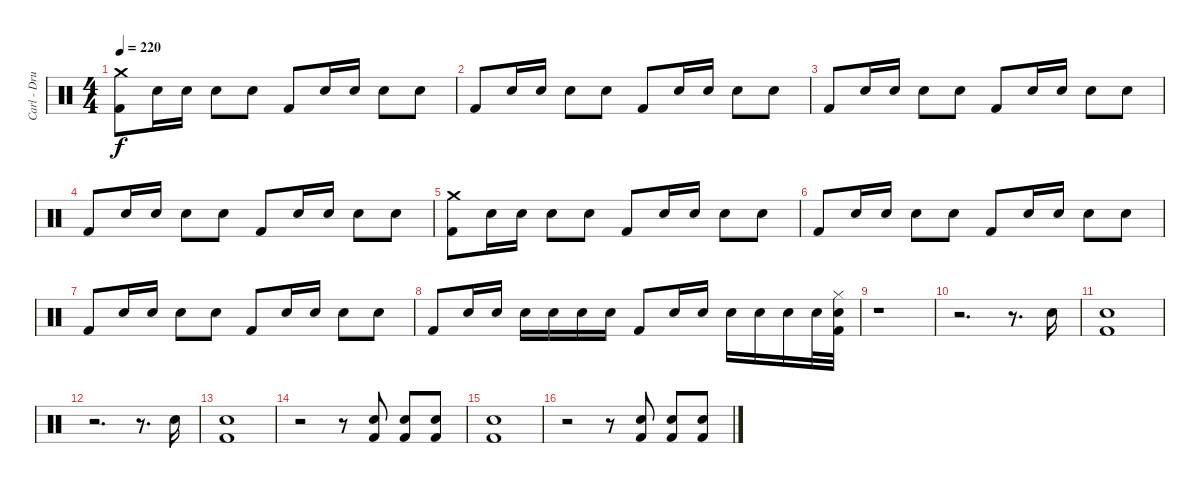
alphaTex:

\track ("Carl - Drums" "Carl - Dru") {instrument percussion}
\staff {score}
\articulation defaults
\ts (4 4)
\tempo 220
\clef neutral
\ks c
("Crash medium (hit)" "Kick (hit) 2").8{dy f} "Electric Snare (hit)".16 "Electric Snare (hit)".16 "Electric Snare (hit)".8 "Electric Snare (hit)".8 "Kick (hit) 2".8 "Electric Snare (hit)".16 "Electric Snare (hit)".16 "Electric Snare (hit)".8 "Electric Snare (hit)".8 |
"Kick (hit) 2".8 "Electric Snare (hit)".16 "Electric Snare (hit)".16 "Electric Snare (hit)".8 "Electric Snare (hit)".8 "Kick (hit) 2".8 "Electric Snare (hit)".16 "Electric Snare (hit)".16 "Electric Snare (hit)".8 "Electric Snare (hit)".8 |
"Kick (hit) 2".8 "Electric Snare (hit)".16 "Electric Snare (hit)".16 "Electric Snare (hit)".8 "Electric Snare (hit)".8 "Kick (hit) 2".8 "Electric Snare (hit)".16 "Electric Snare (hit)".16 "Electric Snare (hit)".8 "Electric Snare (hit)".8 |
"Kick (hit) 2".8 "Electric Snare (hit)".16 "Electric Snare (hit)".16 "Electric Snare (hit)".8 "Electric Snare (hit)".8 "Kick (hit) 2".8 "Electric Snare (hit)".16 "Electric Snare (hit)".16 "Electric Snare (hit)".8 "Electric Snare (hit)".8 |
("Crash medium (hit)" "Kick (hit) 2").8 "Electric Snare (hit)".16 "Electric Snare (hit)".16 "Electric Snare (hit)".8 "Electric Snare (hit)".8 "Kick (hit) 2".8 "Electric Snare (hit)".16 "Electric Snare (hit)".16 "Electric Snare (hit)".8 "Electric Snare (hit)".8 |
"Kick (hit) 2".8 "Electric Snare (hit)".16 "Electric Snare (hit)".16 "Electric Snare (hit)".8 "Electric Snare (hit)".8 "Kick (hit) 2".8 "Electric Snare (hit)".16 "Electric Snare (hit)".16 "Electric Snare (hit)".8 "Electric Snare (hit)".8 |
"Kick (hit) 2".8 "Electric Snare (hit)".16 "Electric Snare (hit)".16 "Electric Snare (hit)".8 "Electric Snare (hit)".8 "Kick (hit) 2".8 "Electric Snare (hit)".16 "Electric Snare (hit)".16 "Electric Snare (hit)".8 "Electric Snare (hit)".8 |
"Kick (hit) 2".8 "Electric Snare (hit)".16 "Electric Snare (hit)".16 "Electric Snare (hit)".16 "Electric Snare (hit)".16 "Electric Snare (hit)".16 "Electric Snare (hit)".16 "Kick (hit) 2".8 "Electric Snare (hit)".16 "Electric Snare (hit)".16 "Electric Snare (hit)".16 "Electric Snare (hit)".16 "Electric Snare (hit)".16 "Electric Snare (hit)".32 ("Kick (hit) 2" "Hi-Hat (closed)" "Electric Snare (hit)").32 |
r.1 |
r.2{d} r.8{d} "Electric Snare (hit)".16 |
("Electric Snare (hit)" "Kick (hit) 2").1 |
r.2{d} r.8{d} "Electric Snare (hit)".16 |
("Electric Snare (hit)" "Kick (hit) 2").1 |
r.2 r.8 ("Electric Snare (hit)" "Kick (hit) 2").8 ("Electric Snare (hit)" "Kick (hit) 2").8 ("Electric Snare (hit)" "Kick (hit) 2").8 |
("Electric Snare (hit)" "Kick (hit) 2").1 |
r.2 r.8 ("Electric Snare (hit)" "Kick (hit) 2").8 ("Electric Snare (hit)" "Kick (hit) 2").8 ("Electric Snare (hit)" "Kick (hit) 2").8
